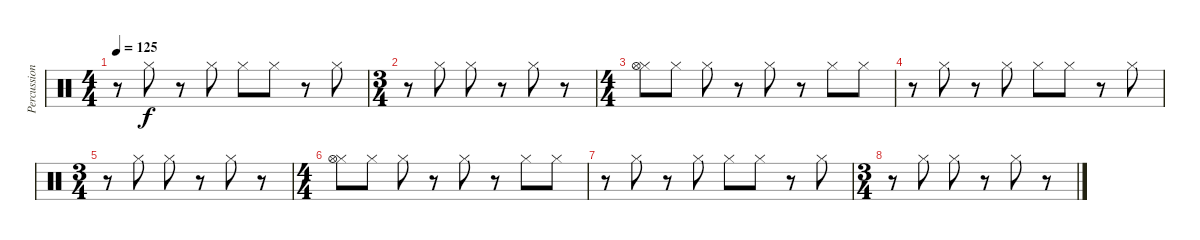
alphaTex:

\track ("Percussion" "Percussion") {instrument percussion}
\staff {score}
\articulation defaults
\ts (4 4)
\tempo 125
\clef neutral
\ks c
r.8{dy f} "Hi-Hat (closed)".8 r.8 "Hi-Hat (closed)".8 "Hi-Hat (closed)".8 "Hi-Hat (closed)".8 r.8 "Hi-Hat (closed)".8 |
\ts (3 4)
r.8 "Hi-Hat (closed)".8 "Hi-Hat (closed)".8 r.8 "Hi-Hat (closed)".8 r.8 |
\ts (4 4)
("Hi-Hat (closed)" "Hi-Hat (open)").8 "Hi-Hat (closed)".8 "Hi-Hat (closed)".8 r.8 "Hi-Hat (closed)".8 r.8 "Hi-Hat (closed)".8 "Hi-Hat (closed)".8 |
r.8 "Hi-Hat (closed)".8 r.8 "Hi-Hat (closed)".8 "Hi-Hat (closed)".8 "Hi-Hat (closed)".8 r.8 "Hi-Hat (closed)".8 |
\ts (3 4)
r.8 "Hi-Hat (closed)".8 "Hi-Hat (closed)".8 r.8 "Hi-Hat (closed)".8 r.8 |
\ts (4 4)
("Hi-Hat (closed)" "Hi-Hat (open)").8 "Hi-Hat (closed)".8 "Hi-Hat (closed)".8 r.8 "Hi-Hat (closed)".8 r.8 "Hi-Hat (closed)".8 "Hi-Hat (closed)".8 |
r.8 "Hi-Hat (closed)".8 r.8 "Hi-Hat (closed)".8 "Hi-Hat (closed)".8 "Hi-Hat (closed)".8 r.8 "Hi-Hat (closed)".8 |
\ts (3 4)
r.8 "Hi-Hat (closed)".8 "Hi-Hat (closed)".8 r.8 "Hi-Hat (closed)".8 r.8
